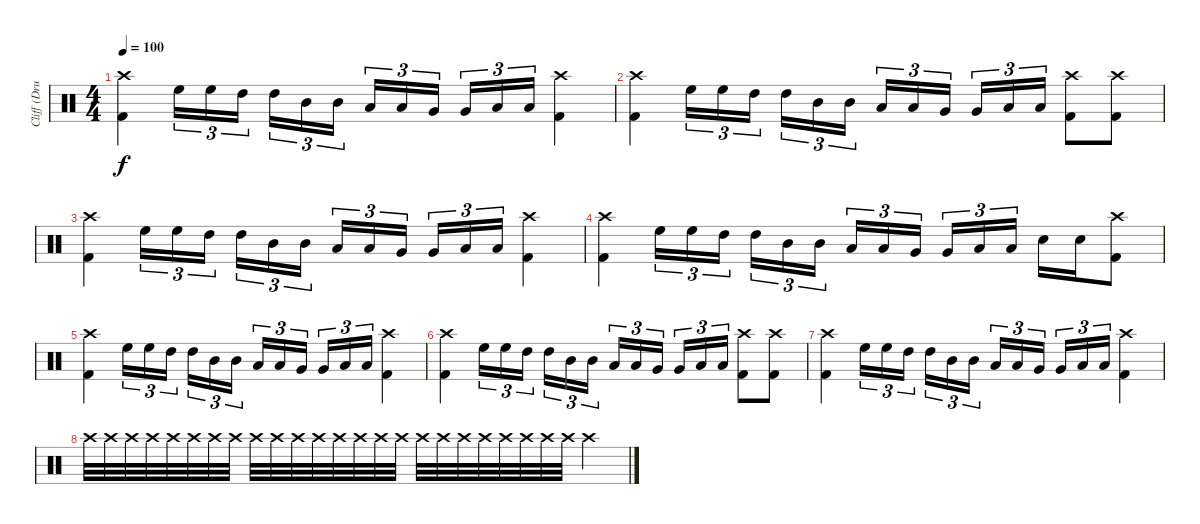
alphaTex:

\track ("Cliff (Drums)" "Cliff (Dru") {instrument percussion}
\staff {score}
\articulation defaults
\ts (4 4)
\tempo 100
\clef neutral
\ks c
("Crash high (hit)" "Kick (hit) 2").4{dy f} "High Floor Tom (hit)".16{tu (3 2)} "High Floor Tom (hit)".16{tu (3 2)} "High Tom (hit)".16{tu (3 2)} "High Tom (hit)".16{tu (3 2)} "Mid Tom (hit)".16{tu (3 2)} "Mid Tom (hit)".16{tu (3 2)} "Low Tom (hit)".16{tu (3 2)} "Low Tom (hit)".16{tu (3 2)} "Very Low Tom (hit)".16{tu (3 2)} "Very Low Tom (hit)".16{tu (3 2)} "Low Floor Tom (hit)".16{tu (3 2)} "Low Floor Tom (hit)".16{tu (3 2)} ("Crash high (hit)" "Kick (hit) 2").4 |
("Crash high (hit)" "Kick (hit) 2").4 "High Floor Tom (hit)".16{tu (3 2)} "High Floor Tom (hit)".16{tu (3 2)} "High Tom (hit)".16{tu (3 2)} "High Tom (hit)".16{tu (3 2)} "Mid Tom (hit)".16{tu (3 2)} "Mid Tom (hit)".16{tu (3 2)} "Low Tom (hit)".16{tu (3 2)} "Low Tom (hit)".16{tu (3 2)} "Very Low Tom (hit)".16{tu (3 2)} "Very Low Tom (hit)".16{tu (3 2)} "Low Floor Tom (hit)".16{tu (3 2)} "Low Floor Tom (hit)".16{tu (3 2)} ("Crash high (hit)" "Kick (hit) 2").8 ("Crash high (hit)" "Kick (hit) 2").8 |
("Crash high (hit)" "Kick (hit) 2").4 "High Floor Tom (hit)".16{tu (3 2)} "High Floor Tom (hit)".16{tu (3 2)} "High Tom (hit)".16{tu (3 2)} "High Tom (hit)".16{tu (3 2)} "Mid Tom (hit)".16{tu (3 2)} "Mid Tom (hit)".16{tu (3 2)} "Low Tom (hit)".16{tu (3 2)} "Low Tom (hit)".16{tu (3 2)} "Very Low Tom (hit)".16{tu (3 2)} "Very Low Tom (hit)".16{tu (3 2)} "Low Floor Tom (hit)".16{tu (3 2)} "Low Floor Tom (hit)".16{tu (3 2)} ("Crash high (hit)" "Kick (hit) 2").4 |
("Crash high (hit)" "Kick (hit) 2").4 "High Floor Tom (hit)".16{tu (3 2)} "High Floor Tom (hit)".16{tu (3 2)} "High Tom (hit)".16{tu (3 2)} "High Tom (hit)".16{tu (3 2)} "Mid Tom (hit)".16{tu (3 2)} "Mid Tom (hit)".16{tu (3 2)} "Low Tom (hit)".16{tu (3 2)} "Low Tom (hit)".16{tu (3 2)} "Very Low Tom (hit)".16{tu (3 2)} "Very Low Tom (hit)".16{tu (3 2)} "Low Floor Tom (hit)".16{tu (3 2)} "Low Floor Tom (hit)".16{tu (3 2)} "Snare (hit) 2".16 "Snare (hit) 2".16 ("Crash high (hit)" "Kick (hit) 2").8 |
("Crash high (hit)" "Kick (hit) 2").4 "High Floor Tom (hit)".16{tu (3 2)} "High Floor Tom (hit)".16{tu (3 2)} "High Tom (hit)".16{tu (3 2)} "High Tom (hit)".16{tu (3 2)} "Mid Tom (hit)".16{tu (3 2)} "Mid Tom (hit)".16{tu (3 2)} "Low Tom (hit)".16{tu (3 2)} "Low Tom (hit)".16{tu (3 2)} "Very Low Tom (hit)".16{tu (3 2)} "Very Low Tom (hit)".16{tu (3 2)} "Low Floor Tom (hit)".16{tu (3 2)} "Low Floor Tom (hit)".16{tu (3 2)} ("Crash high (hit)" "Kick (hit) 2").4 |
("Crash high (hit)" "Kick (hit) 2").4 "High Floor Tom (hit)".16{tu (3 2)} "High Floor Tom (hit)".16{tu (3 2)} "High Tom (hit)".16{tu (3 2)} "High Tom (hit)".16{tu (3 2)} "Mid Tom (hit)".16{tu (3 2)} "Mid Tom (hit)".16{tu (3 2)} "Low Tom (hit)".16{tu (3 2)} "Low Tom (hit)".16{tu (3 2)} "Very Low Tom (hit)".16{tu (3 2)} "Very Low Tom (hit)".16{tu (3 2)} "Low Floor Tom (hit)".16{tu (3 2)} "Low Floor Tom (hit)".16{tu (3 2)} ("Crash high (hit)" "Kick (hit) 2").8 ("Crash high (hit)" "Kick (hit) 2").8 |
("Crash high (hit)" "Kick (hit) 2").4 "High Floor Tom (hit)".16{tu (3 2)} "High Floor Tom (hit)".16{tu (3 2)} "High Tom (hit)".16{tu (3 2)} "High Tom (hit)".16{tu (3 2)} "Mid Tom (hit)".16{tu (3 2)} "Mid Tom (hit)".16{tu (3 2)} "Low Tom (hit)".16{tu (3 2)} "Low Tom (hit)".16{tu (3 2)} "Very Low Tom (hit)".16{tu (3 2)} "Very Low Tom (hit)".16{tu (3 2)} "Low Floor Tom (hit)".16{tu (3 2)} "Low Floor Tom (hit)".16{tu (3 2)} ("Crash high (hit)" "Kick (hit) 2").4 |
"Crash high (hit)".32 "Crash high (hit)".32 "Crash high (hit)".32 "Crash high (hit)".32 "Crash high (hit)".32 "Crash high (hit)".32 "Crash high (hit)".32 "Crash high (hit)".32 "Crash high (hit)".32 "Crash high (hit)".32 "Crash high (hit)".32 "Crash high (hit)".32 "Crash high (hit)".32 "Crash high (hit)".32 "Crash high (hit)".32 "Crash high (hit)".32 "Crash high (hit)".32 "Crash high (hit)".32 "Crash high (hit)".32 "Crash high (hit)".32 "Crash high (hit)".32 "Crash high (hit)".32 "Crash high (hit)".32 "Crash high (hit)".32 "Crash high (hit)".4
